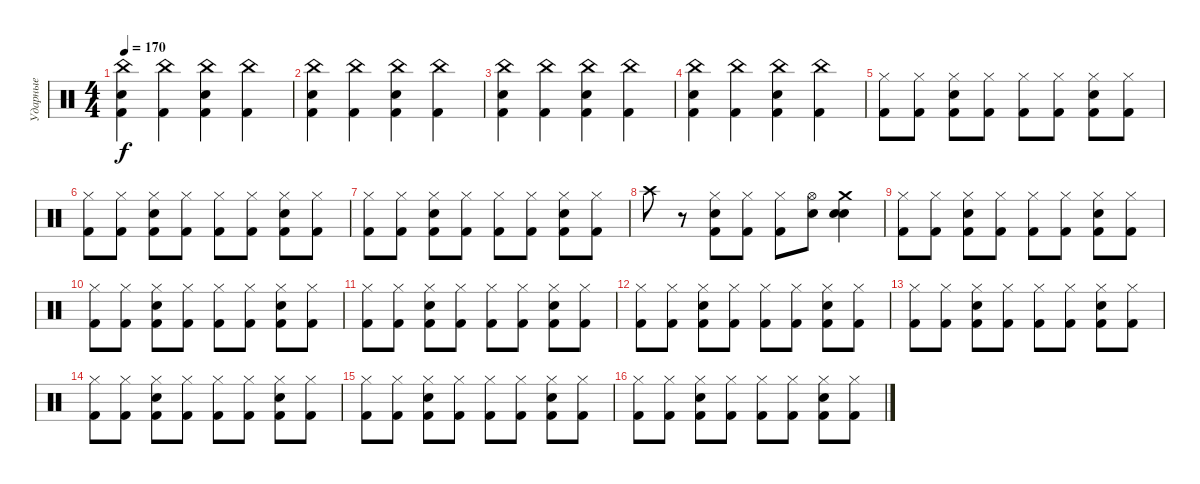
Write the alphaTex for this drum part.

\track ("Ударные" "Ударные") {instrument percussion}
\staff {score}
\articulation defaults
\ts (4 4)
\tempo 170
\clef neutral
\ks c
("China (hit)" "Snare (hit) 2" "Kick (hit) 2").4{dy f} ("China (hit)" "Kick (hit) 2").4 ("China (hit)" "Kick (hit) 2" "Snare (hit) 2").4 ("China (hit)" "Kick (hit) 2").4 |
("China (hit)" "Snare (hit) 2" "Kick (hit) 2").4 ("China (hit)" "Kick (hit) 2").4 ("China (hit)" "Kick (hit) 2" "Snare (hit) 2").4 ("China (hit)" "Kick (hit) 2").4 |
("China (hit)" "Snare (hit) 2" "Kick (hit) 2").4 ("China (hit)" "Kick (hit) 2").4 ("China (hit)" "Kick (hit) 2" "Snare (hit) 2").4 ("China (hit)" "Kick (hit) 2").4 |
("China (hit)" "Snare (hit) 2" "Kick (hit) 2").4 ("China (hit)" "Kick (hit) 2").4 ("China (hit)" "Kick (hit) 2" "Snare (hit) 2").4 ("China (hit)" "Kick (hit) 2").4 |
("Hi-Hat (closed)" "Kick (hit) 2").8 ("Hi-Hat (closed)" "Kick (hit) 2").8 ("Hi-Hat (closed)" "Kick (hit) 2" "Snare (hit) 2").8 ("Hi-Hat (closed)" "Kick (hit) 2").8 ("Hi-Hat (closed)" "Kick (hit) 2").8 ("Hi-Hat (closed)" "Kick (hit) 2").8 ("Hi-Hat (closed)" "Kick (hit) 2" "Snare (hit) 2").8 ("Hi-Hat (closed)" "Kick (hit) 2").8 |
("Hi-Hat (closed)" "Kick (hit) 2").8 ("Hi-Hat (closed)" "Kick (hit) 2").8 ("Hi-Hat (closed)" "Kick (hit) 2" "Snare (hit) 2").8 ("Hi-Hat (closed)" "Kick (hit) 2").8 ("Hi-Hat (closed)" "Kick (hit) 2").8 ("Hi-Hat (closed)" "Kick (hit) 2").8 ("Hi-Hat (closed)" "Kick (hit) 2" "Snare (hit) 2").8 ("Hi-Hat (closed)" "Kick (hit) 2").8 |
("Hi-Hat (closed)" "Kick (hit) 2").8 ("Hi-Hat (closed)" "Kick (hit) 2").8 ("Hi-Hat (closed)" "Kick (hit) 2" "Snare (hit) 2").8 ("Hi-Hat (closed)" "Kick (hit) 2").8 ("Hi-Hat (closed)" "Kick (hit) 2").8 ("Hi-Hat (closed)" "Kick (hit) 2").8 ("Hi-Hat (closed)" "Kick (hit) 2" "Snare (hit) 2").8 ("Hi-Hat (closed)" "Kick (hit) 2").8 |
"Crash high (hit)".8 r.8 ("Hi-Hat (closed)" "Snare (hit) 2" "Kick (hit) 2").8 ("Hi-Hat (closed)" "Kick (hit) 2").8 ("Hi-Hat (closed)" "Kick (hit) 2").8 ("Hi-Hat (open)" "Electric Snare (hit)").8 ("Crash medium (hit)" "Electric Snare (hit)" "Snare (hit) 2").4 |
("Hi-Hat (closed)" "Kick (hit) 2").8 ("Hi-Hat (closed)" "Kick (hit) 2").8 ("Hi-Hat (closed)" "Kick (hit) 2" "Snare (hit) 2").8 ("Hi-Hat (closed)" "Kick (hit) 2").8 ("Hi-Hat (closed)" "Kick (hit) 2").8 ("Hi-Hat (closed)" "Kick (hit) 2").8 ("Hi-Hat (closed)" "Kick (hit) 2" "Snare (hit) 2").8 ("Hi-Hat (closed)" "Kick (hit) 2").8 |
("Hi-Hat (closed)" "Kick (hit) 2").8 ("Hi-Hat (closed)" "Kick (hit) 2").8 ("Hi-Hat (closed)" "Kick (hit) 2" "Snare (hit) 2").8 ("Hi-Hat (closed)" "Kick (hit) 2").8 ("Hi-Hat (closed)" "Kick (hit) 2").8 ("Hi-Hat (closed)" "Kick (hit) 2").8 ("Hi-Hat (closed)" "Kick (hit) 2" "Snare (hit) 2").8 ("Hi-Hat (closed)" "Kick (hit) 2").8 |
("Hi-Hat (closed)" "Kick (hit) 2").8 ("Hi-Hat (closed)" "Kick (hit) 2").8 ("Hi-Hat (closed)" "Kick (hit) 2" "Snare (hit) 2").8 ("Hi-Hat (closed)" "Kick (hit) 2").8 ("Hi-Hat (closed)" "Kick (hit) 2").8 ("Hi-Hat (closed)" "Kick (hit) 2").8 ("Hi-Hat (closed)" "Kick (hit) 2" "Snare (hit) 2").8 ("Hi-Hat (closed)" "Kick (hit) 2").8 |
("Hi-Hat (closed)" "Kick (hit) 2").8 ("Hi-Hat (closed)" "Kick (hit) 2").8 ("Hi-Hat (closed)" "Kick (hit) 2" "Snare (hit) 2").8 ("Hi-Hat (closed)" "Kick (hit) 2").8 ("Hi-Hat (closed)" "Kick (hit) 2").8 ("Hi-Hat (closed)" "Kick (hit) 2").8 ("Hi-Hat (closed)" "Kick (hit) 2" "Snare (hit) 2").8 ("Hi-Hat (closed)" "Kick (hit) 2").8 |
("Hi-Hat (closed)" "Kick (hit) 2").8 ("Hi-Hat (closed)" "Kick (hit) 2").8 ("Hi-Hat (closed)" "Kick (hit) 2" "Snare (hit) 2").8 ("Hi-Hat (closed)" "Kick (hit) 2").8 ("Hi-Hat (closed)" "Kick (hit) 2").8 ("Hi-Hat (closed)" "Kick (hit) 2").8 ("Hi-Hat (closed)" "Kick (hit) 2" "Snare (hit) 2").8 ("Hi-Hat (closed)" "Kick (hit) 2").8 |
("Hi-Hat (closed)" "Kick (hit) 2").8 ("Hi-Hat (closed)" "Kick (hit) 2").8 ("Hi-Hat (closed)" "Kick (hit) 2" "Snare (hit) 2").8 ("Hi-Hat (closed)" "Kick (hit) 2").8 ("Hi-Hat (closed)" "Kick (hit) 2").8 ("Hi-Hat (closed)" "Kick (hit) 2").8 ("Hi-Hat (closed)" "Kick (hit) 2" "Snare (hit) 2").8 ("Hi-Hat (closed)" "Kick (hit) 2").8 |
("Hi-Hat (closed)" "Kick (hit) 2").8 ("Hi-Hat (closed)" "Kick (hit) 2").8 ("Hi-Hat (closed)" "Kick (hit) 2" "Snare (hit) 2").8 ("Hi-Hat (closed)" "Kick (hit) 2").8 ("Hi-Hat (closed)" "Kick (hit) 2").8 ("Hi-Hat (closed)" "Kick (hit) 2").8 ("Hi-Hat (closed)" "Kick (hit) 2" "Snare (hit) 2").8 ("Hi-Hat (closed)" "Kick (hit) 2").8 |
("Hi-Hat (closed)" "Kick (hit) 2").8 ("Hi-Hat (closed)" "Kick (hit) 2").8 ("Hi-Hat (closed)" "Kick (hit) 2" "Snare (hit) 2").8 ("Hi-Hat (closed)" "Kick (hit) 2").8 ("Hi-Hat (closed)" "Kick (hit) 2").8 ("Hi-Hat (closed)" "Kick (hit) 2").8 ("Hi-Hat (closed)" "Kick (hit) 2" "Snare (hit) 2").8 ("Hi-Hat (closed)" "Kick (hit) 2").8
